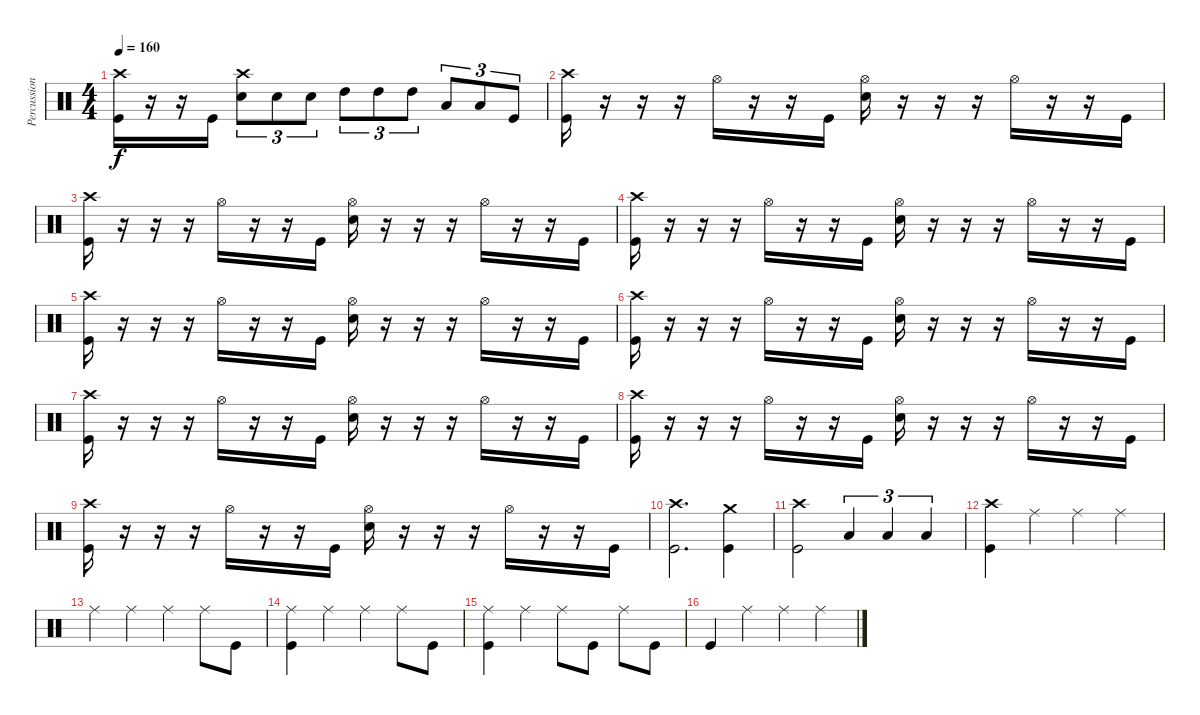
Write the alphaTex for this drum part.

\track ("Percussion" "Percussion") {instrument percussion}
\staff {score}
\articulation defaults
\ts (4 4)
\tempo 160
\clef neutral
\ks c
("Kick (hit)" "Crash high (hit)").16{dy f} r.16 r.16 "Kick (hit)".16 ("Snare (hit) 2" "Crash high (hit)").8{tu (3 2)} "Snare (hit) 2".8{tu (3 2)} "Snare (hit) 2".8{tu (3 2)} "High Tom (hit)".8{tu (3 2)} "High Tom (hit)".8{tu (3 2)} "High Tom (hit)".8{tu (3 2)} "Low Floor Tom (hit)".8{tu (3 2)} "Low Floor Tom (hit)".8{tu (3 2)} "Kick (hit)".8{tu (3 2)} |
("Kick (hit)" "Crash high (hit)").16 r.16 r.16 r.16 "Hi-Hat (open)".16 r.16 r.16 "Kick (hit)".16 ("Snare (hit) 2" "Hi-Hat (open)").16 r.16 r.16 r.16 "Hi-Hat (open)".16 r.16 r.16 "Kick (hit)".16 |
("Kick (hit)" "Crash high (hit)").16 r.16 r.16 r.16 "Hi-Hat (open)".16 r.16 r.16 "Kick (hit)".16 ("Snare (hit) 2" "Hi-Hat (open)").16 r.16 r.16 r.16 "Hi-Hat (open)".16 r.16 r.16 "Kick (hit)".16 |
("Kick (hit)" "Crash high (hit)").16 r.16 r.16 r.16 "Hi-Hat (open)".16 r.16 r.16 "Kick (hit)".16 ("Snare (hit) 2" "Hi-Hat (open)").16 r.16 r.16 r.16 "Hi-Hat (open)".16 r.16 r.16 "Kick (hit)".16 |
("Kick (hit)" "Crash high (hit)").16 r.16 r.16 r.16 "Hi-Hat (open)".16 r.16 r.16 "Kick (hit)".16 ("Snare (hit) 2" "Hi-Hat (open)").16 r.16 r.16 r.16 "Hi-Hat (open)".16 r.16 r.16 "Kick (hit)".16 |
("Kick (hit)" "Crash high (hit)").16 r.16 r.16 r.16 "Hi-Hat (open)".16 r.16 r.16 "Kick (hit)".16 ("Snare (hit) 2" "Hi-Hat (open)").16 r.16 r.16 r.16 "Hi-Hat (open)".16 r.16 r.16 "Kick (hit)".16 |
("Kick (hit)" "Crash high (hit)").16 r.16 r.16 r.16 "Hi-Hat (open)".16 r.16 r.16 "Kick (hit)".16 ("Snare (hit) 2" "Hi-Hat (open)").16 r.16 r.16 r.16 "Hi-Hat (open)".16 r.16 r.16 "Kick (hit)".16 |
("Kick (hit)" "Crash high (hit)").16 r.16 r.16 r.16 "Hi-Hat (open)".16 r.16 r.16 "Kick (hit)".16 ("Snare (hit) 2" "Hi-Hat (open)").16 r.16 r.16 r.16 "Hi-Hat (open)".16 r.16 r.16 "Kick (hit)".16 |
("Kick (hit)" "Crash high (hit)").16 r.16 r.16 r.16 "Hi-Hat (open)".16 r.16 r.16 "Kick (hit)".16 ("Snare (hit) 2" "Hi-Hat (open)").16 r.16 r.16 r.16 "Hi-Hat (open)".16 r.16 r.16 "Kick (hit)".16 |
("Kick (hit)" "Crash high (hit)").2{d} ("Kick (hit)" "Crash medium (hit)").4 |
("Kick (hit)" "Crash high (hit)").2 "Low Floor Tom (hit)".4{tu (3 2)} "Low Floor Tom (hit)".4{tu (3 2)} "Low Floor Tom (hit)".4{tu (3 2)} |
("Kick (hit)" "Crash high (hit)").4 "Ride (middle)".4 "Ride (middle)".4 "Ride (middle)".4 |
"Ride (middle)".4 "Ride (middle)".4 "Ride (middle)".4 "Ride (middle)".8 "Kick (hit)".8 |
("Ride (middle)" "Kick (hit)").4 "Ride (middle)".4 "Ride (middle)".4 "Ride (middle)".8 "Kick (hit)".8 |
("Ride (middle)" "Kick (hit)").4 "Ride (middle)".4 "Ride (middle)".8 "Kick (hit)".8 "Ride (middle)".8 "Kick (hit)".8 |
"Kick (hit)".4 "Ride (middle)".4 "Ride (middle)".4 "Ride (middle)".4
